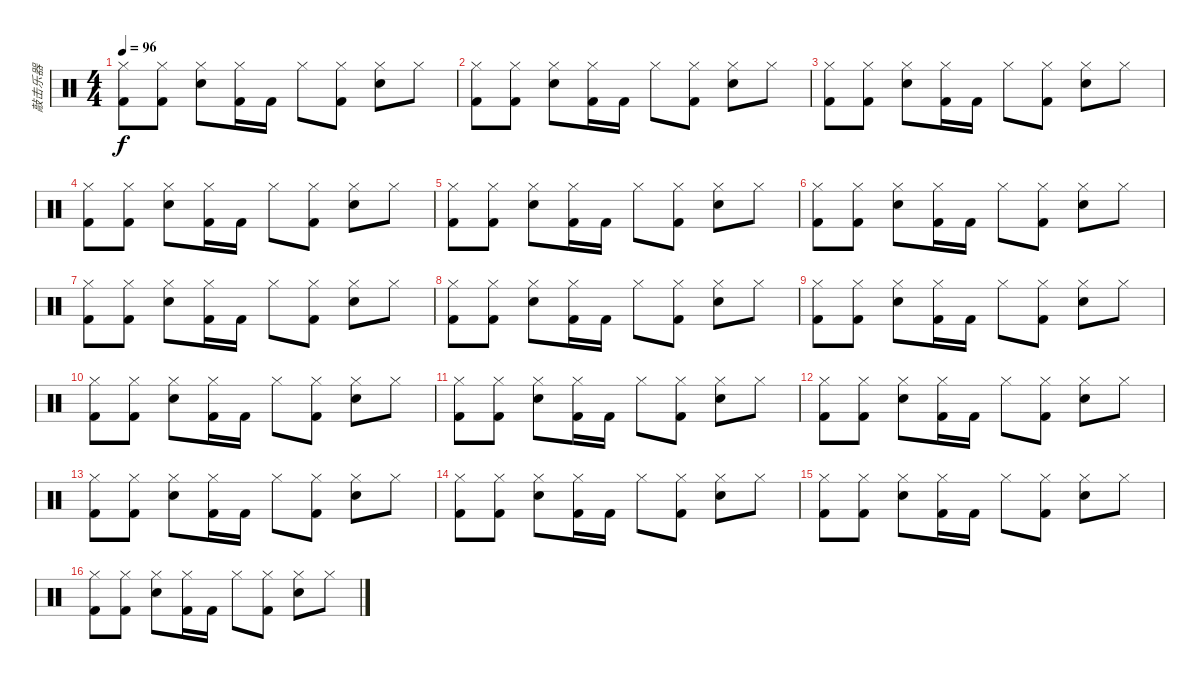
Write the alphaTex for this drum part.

\track ("敲击乐器" "敲击乐器") {instrument percussion}
\staff {score}
\articulation defaults
\ts (4 4)
\tempo 96
\clef neutral
\ks c
("Hi-Hat (closed)" "Kick (hit) 2").8{dy f} ("Hi-Hat (closed)" "Kick (hit) 2").8 ("Hi-Hat (closed)" "Electric Snare (hit)").8 ("Hi-Hat (closed)" "Kick (hit) 2").16 "Kick (hit) 2".16 "Hi-Hat (closed)".8 ("Hi-Hat (closed)" "Kick (hit) 2").8 ("Hi-Hat (closed)" "Electric Snare (hit)").8 "Hi-Hat (closed)".8 |
("Hi-Hat (closed)" "Kick (hit) 2").8 ("Hi-Hat (closed)" "Kick (hit) 2").8 ("Hi-Hat (closed)" "Electric Snare (hit)").8 ("Hi-Hat (closed)" "Kick (hit) 2").16 "Kick (hit) 2".16 "Hi-Hat (closed)".8 ("Hi-Hat (closed)" "Kick (hit) 2").8 ("Hi-Hat (closed)" "Electric Snare (hit)").8 "Hi-Hat (closed)".8 |
("Hi-Hat (closed)" "Kick (hit) 2").8 ("Hi-Hat (closed)" "Kick (hit) 2").8 ("Hi-Hat (closed)" "Electric Snare (hit)").8 ("Hi-Hat (closed)" "Kick (hit) 2").16 "Kick (hit) 2".16 "Hi-Hat (closed)".8 ("Hi-Hat (closed)" "Kick (hit) 2").8 ("Hi-Hat (closed)" "Electric Snare (hit)").8 "Hi-Hat (closed)".8 |
("Hi-Hat (closed)" "Kick (hit) 2").8 ("Hi-Hat (closed)" "Kick (hit) 2").8 ("Hi-Hat (closed)" "Electric Snare (hit)").8 ("Hi-Hat (closed)" "Kick (hit) 2").16 "Kick (hit) 2".16 "Hi-Hat (closed)".8 ("Hi-Hat (closed)" "Kick (hit) 2").8 ("Hi-Hat (closed)" "Electric Snare (hit)").8 "Hi-Hat (closed)".8 |
("Hi-Hat (closed)" "Kick (hit) 2").8 ("Hi-Hat (closed)" "Kick (hit) 2").8 ("Hi-Hat (closed)" "Electric Snare (hit)").8 ("Hi-Hat (closed)" "Kick (hit) 2").16 "Kick (hit) 2".16 "Hi-Hat (closed)".8 ("Hi-Hat (closed)" "Kick (hit) 2").8 ("Hi-Hat (closed)" "Electric Snare (hit)").8 "Hi-Hat (closed)".8 |
("Hi-Hat (closed)" "Kick (hit) 2").8 ("Hi-Hat (closed)" "Kick (hit) 2").8 ("Hi-Hat (closed)" "Electric Snare (hit)").8 ("Hi-Hat (closed)" "Kick (hit) 2").16 "Kick (hit) 2".16 "Hi-Hat (closed)".8 ("Hi-Hat (closed)" "Kick (hit) 2").8 ("Hi-Hat (closed)" "Electric Snare (hit)").8 "Hi-Hat (closed)".8 |
("Hi-Hat (closed)" "Kick (hit) 2").8 ("Hi-Hat (closed)" "Kick (hit) 2").8 ("Hi-Hat (closed)" "Electric Snare (hit)").8 ("Hi-Hat (closed)" "Kick (hit) 2").16 "Kick (hit) 2".16 "Hi-Hat (closed)".8 ("Hi-Hat (closed)" "Kick (hit) 2").8 ("Hi-Hat (closed)" "Electric Snare (hit)").8 "Hi-Hat (closed)".8 |
("Hi-Hat (closed)" "Kick (hit) 2").8 ("Hi-Hat (closed)" "Kick (hit) 2").8 ("Hi-Hat (closed)" "Electric Snare (hit)").8 ("Hi-Hat (closed)" "Kick (hit) 2").16 "Kick (hit) 2".16 "Hi-Hat (closed)".8 ("Hi-Hat (closed)" "Kick (hit) 2").8 ("Hi-Hat (closed)" "Electric Snare (hit)").8 "Hi-Hat (closed)".8 |
("Hi-Hat (closed)" "Kick (hit) 2").8 ("Hi-Hat (closed)" "Kick (hit) 2").8 ("Hi-Hat (closed)" "Electric Snare (hit)").8 ("Hi-Hat (closed)" "Kick (hit) 2").16 "Kick (hit) 2".16 "Hi-Hat (closed)".8 ("Hi-Hat (closed)" "Kick (hit) 2").8 ("Hi-Hat (closed)" "Electric Snare (hit)").8 "Hi-Hat (closed)".8 |
("Hi-Hat (closed)" "Kick (hit) 2").8 ("Hi-Hat (closed)" "Kick (hit) 2").8 ("Hi-Hat (closed)" "Electric Snare (hit)").8 ("Hi-Hat (closed)" "Kick (hit) 2").16 "Kick (hit) 2".16 "Hi-Hat (closed)".8 ("Hi-Hat (closed)" "Kick (hit) 2").8 ("Hi-Hat (closed)" "Electric Snare (hit)").8 "Hi-Hat (closed)".8 |
("Hi-Hat (closed)" "Kick (hit) 2").8 ("Hi-Hat (closed)" "Kick (hit) 2").8 ("Hi-Hat (closed)" "Electric Snare (hit)").8 ("Hi-Hat (closed)" "Kick (hit) 2").16 "Kick (hit) 2".16 "Hi-Hat (closed)".8 ("Hi-Hat (closed)" "Kick (hit) 2").8 ("Hi-Hat (closed)" "Electric Snare (hit)").8 "Hi-Hat (closed)".8 |
("Hi-Hat (closed)" "Kick (hit) 2").8 ("Hi-Hat (closed)" "Kick (hit) 2").8 ("Hi-Hat (closed)" "Electric Snare (hit)").8 ("Hi-Hat (closed)" "Kick (hit) 2").16 "Kick (hit) 2".16 "Hi-Hat (closed)".8 ("Hi-Hat (closed)" "Kick (hit) 2").8 ("Hi-Hat (closed)" "Electric Snare (hit)").8 "Hi-Hat (closed)".8 |
("Hi-Hat (closed)" "Kick (hit) 2").8 ("Hi-Hat (closed)" "Kick (hit) 2").8 ("Hi-Hat (closed)" "Electric Snare (hit)").8 ("Hi-Hat (closed)" "Kick (hit) 2").16 "Kick (hit) 2".16 "Hi-Hat (closed)".8 ("Hi-Hat (closed)" "Kick (hit) 2").8 ("Hi-Hat (closed)" "Electric Snare (hit)").8 "Hi-Hat (closed)".8 |
("Hi-Hat (closed)" "Kick (hit) 2").8 ("Hi-Hat (closed)" "Kick (hit) 2").8 ("Hi-Hat (closed)" "Electric Snare (hit)").8 ("Hi-Hat (closed)" "Kick (hit) 2").16 "Kick (hit) 2".16 "Hi-Hat (closed)".8 ("Hi-Hat (closed)" "Kick (hit) 2").8 ("Hi-Hat (closed)" "Electric Snare (hit)").8 "Hi-Hat (closed)".8 |
("Hi-Hat (closed)" "Kick (hit) 2").8 ("Hi-Hat (closed)" "Kick (hit) 2").8 ("Hi-Hat (closed)" "Electric Snare (hit)").8 ("Hi-Hat (closed)" "Kick (hit) 2").16 "Kick (hit) 2".16 "Hi-Hat (closed)".8 ("Hi-Hat (closed)" "Kick (hit) 2").8 ("Hi-Hat (closed)" "Electric Snare (hit)").8 "Hi-Hat (closed)".8 |
("Hi-Hat (closed)" "Kick (hit) 2").8 ("Hi-Hat (closed)" "Kick (hit) 2").8 ("Hi-Hat (closed)" "Electric Snare (hit)").8 ("Hi-Hat (closed)" "Kick (hit) 2").16 "Kick (hit) 2".16 "Hi-Hat (closed)".8 ("Hi-Hat (closed)" "Kick (hit) 2").8 ("Hi-Hat (closed)" "Electric Snare (hit)").8 "Hi-Hat (closed)".8
